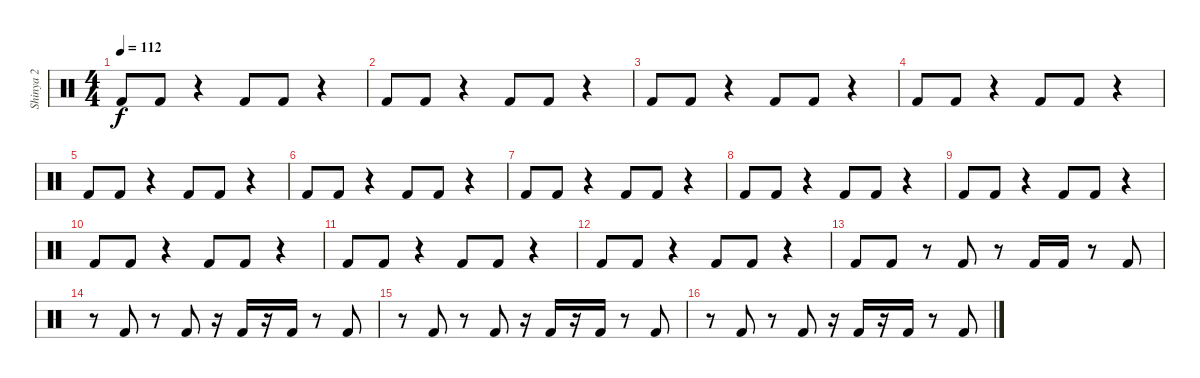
\track ("Shinya 2" "Shinya 2") {instrument percussion}
\staff {score}
\articulation defaults
\ts (4 4)
\tempo 112
\clef neutral
\ks c "Kick (hit) 2".8{dy f} "Kick (hit) 2".8
r.4 "Kick (hit) 2".8 "Kick (hit) 2".8 r.4 |
"Kick (hit) 2".8 "Kick (hit) 2".8 r.4 "Kick (hit) 2".8 "Kick (hit) 2".8 r.4 |
"Kick (hit) 2".8 "Kick (hit) 2".8 r.4 "Kick (hit) 2".8 "Kick (hit) 2".8 r.4 |
"Kick (hit) 2".8 "Kick (hit) 2".8 r.4 "Kick (hit) 2".8 "Kick (hit) 2".8 r.4 |
"Kick (hit) 2".8 "Kick (hit) 2".8 r.4 "Kick (hit) 2".8 "Kick (hit) 2".8 r.4 |
"Kick (hit) 2".8 "Kick (hit) 2".8 r.4 "Kick (hit) 2".8 "Kick (hit) 2".8 r.4 |
"Kick (hit) 2".8 "Kick (hit) 2".8 r.4 "Kick (hit) 2".8 "Kick (hit) 2".8 r.4 |
"Kick (hit) 2".8 "Kick (hit) 2".8 r.4 "Kick (hit) 2".8 "Kick (hit) 2".8 r.4 |
"Kick (hit) 2".8 "Kick (hit) 2".8 r.4 "Kick (hit) 2".8 "Kick (hit) 2".8 r.4 |
"Kick (hit) 2".8 "Kick (hit) 2".8 r.4 "Kick (hit) 2".8 "Kick (hit) 2".8 r.4 |
"Kick (hit) 2".8 "Kick (hit) 2".8 r.4 "Kick (hit) 2".8 "Kick (hit) 2".8 r.4 |
"Kick (hit) 2".8 "Kick (hit) 2".8 r.4 "Kick (hit) 2".8 "Kick (hit) 2".8 r.4 |
"Kick (hit) 2".8 "Kick (hit) 2".8 r.8 "Kick (hit) 2".8 r.8 "Kick (hit) 2".16 "Kick (hit) 2".16 r.8 "Kick (hit) 2".8 |
r.8 "Kick (hit) 2".8 r.8 "Kick (hit) 2".8 r.16 "Kick (hit) 2".16 r.16 "Kick (hit) 2".16 r.8 "Kick (hit) 2".8 |
r.8 "Kick (hit) 2".8 r.8 "Kick (hit) 2".8 r.16 "Kick (hit) 2".16 r.16 "Kick (hit) 2".16 r.8 "Kick (hit) 2".8 |
r.8 "Kick (hit) 2".8 r.8 "Kick (hit) 2".8 r.16 "Kick (hit) 2".16 r.16 "Kick (hit) 2".16 r.8 "Kick (hit) 2".8
